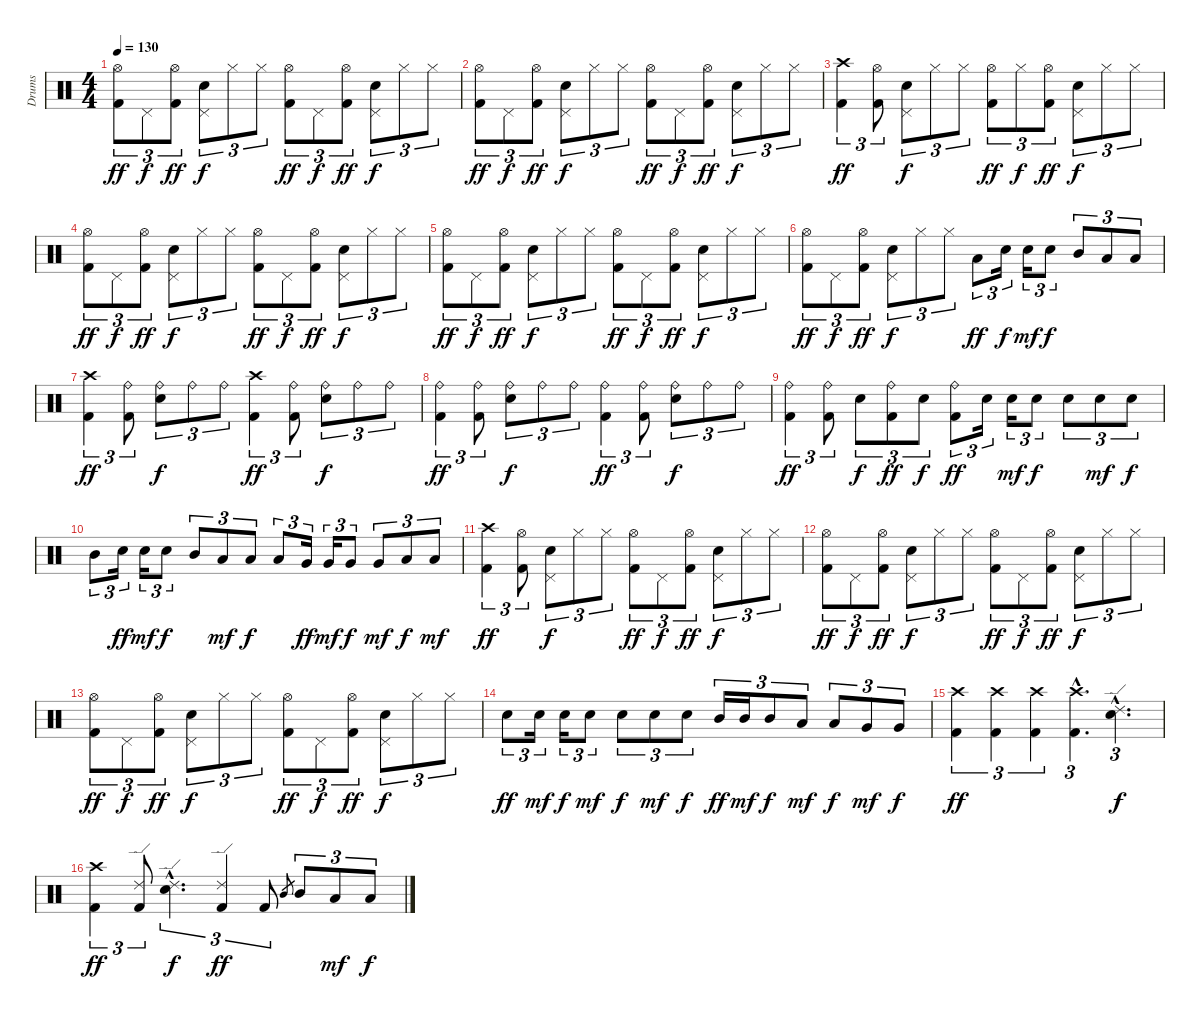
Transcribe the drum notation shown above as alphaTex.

\track ("Drums" "Drums") {instrument percussion}
\staff {score}
\articulation defaults
\ts (4 4)
\tempo 130
\clef neutral
\ks c
("Hi-Hat (open)" "Kick (hit) 2").8{tu (3 2) dy ff} "Pedal Hi-Hat (hit)".8{tu (3 2) dy f} ("Hi-Hat (open)" "Kick (hit) 2").8{tu (3 2) dy ff} ("Pedal Hi-Hat (hit)" "Snare (hit) 2").8{tu (3 2) dy f} "Hi-Hat (closed)".8{tu (3 2)} "Hi-Hat (closed)".8{tu (3 2)} ("Hi-Hat (open)" "Kick (hit) 2").8{tu (3 2) dy ff} "Pedal Hi-Hat (hit)".8{tu (3 2) dy f} ("Hi-Hat (open)" "Kick (hit) 2").8{tu (3 2) dy ff} ("Pedal Hi-Hat (hit)" "Snare (hit) 2").8{tu (3 2) dy f} "Hi-Hat (closed)".8{tu (3 2)} "Hi-Hat (closed)".8{tu (3 2)} |
("Hi-Hat (open)" "Kick (hit) 2").8{tu (3 2) dy ff} "Pedal Hi-Hat (hit)".8{tu (3 2) dy f} ("Hi-Hat (open)" "Kick (hit) 2").8{tu (3 2) dy ff} ("Pedal Hi-Hat (hit)" "Snare (hit) 2").8{tu (3 2) dy f} "Hi-Hat (closed)".8{tu (3 2)} "Hi-Hat (closed)".8{tu (3 2)} ("Hi-Hat (open)" "Kick (hit) 2").8{tu (3 2) dy ff} "Pedal Hi-Hat (hit)".8{tu (3 2) dy f} ("Hi-Hat (open)" "Kick (hit) 2").8{tu (3 2) dy ff} ("Pedal Hi-Hat (hit)" "Snare (hit) 2").8{tu (3 2) dy f} "Hi-Hat (closed)".8{tu (3 2)} "Hi-Hat (closed)".8{tu (3 2)} |
("Crash high (hit)" "Kick (hit) 2").4{tu (3 2) dy ff} ("Hi-Hat (open)" "Kick (hit) 2").8{tu (3 2)} ("Pedal Hi-Hat (hit)" "Snare (hit) 2").8{tu (3 2) dy f} "Hi-Hat (closed)".8{tu (3 2)} "Hi-Hat (closed)".8{tu (3 2)} ("Hi-Hat (open)" "Kick (hit) 2").8{tu (3 2) dy ff} "Hi-Hat (closed)".8{tu (3 2) dy f} ("Hi-Hat (open)" "Kick (hit) 2").8{tu (3 2) dy ff} ("Pedal Hi-Hat (hit)" "Snare (hit) 2").8{tu (3 2) dy f} "Hi-Hat (closed)".8{tu (3 2)} "Hi-Hat (closed)".8{tu (3 2)} |
("Hi-Hat (open)" "Kick (hit) 2").8{tu (3 2) dy ff} "Pedal Hi-Hat (hit)".8{tu (3 2) dy f} ("Hi-Hat (open)" "Kick (hit) 2").8{tu (3 2) dy ff} ("Pedal Hi-Hat (hit)" "Snare (hit) 2").8{tu (3 2) dy f} "Hi-Hat (closed)".8{tu (3 2)} "Hi-Hat (closed)".8{tu (3 2)} ("Hi-Hat (open)" "Kick (hit) 2").8{tu (3 2) dy ff} "Pedal Hi-Hat (hit)".8{tu (3 2) dy f} ("Hi-Hat (open)" "Kick (hit) 2").8{tu (3 2) dy ff} ("Pedal Hi-Hat (hit)" "Snare (hit) 2").8{tu (3 2) dy f} "Hi-Hat (closed)".8{tu (3 2)} "Hi-Hat (closed)".8{tu (3 2)} |
("Hi-Hat (open)" "Kick (hit) 2").8{tu (3 2) dy ff} "Pedal Hi-Hat (hit)".8{tu (3 2) dy f} ("Hi-Hat (open)" "Kick (hit) 2").8{tu (3 2) dy ff} ("Pedal Hi-Hat (hit)" "Snare (hit) 2").8{tu (3 2) dy f} "Hi-Hat (closed)".8{tu (3 2)} "Hi-Hat (closed)".8{tu (3 2)} ("Hi-Hat (open)" "Kick (hit) 2").8{tu (3 2) dy ff} "Pedal Hi-Hat (hit)".8{tu (3 2) dy f} ("Hi-Hat (open)" "Kick (hit) 2").8{tu (3 2) dy ff} ("Pedal Hi-Hat (hit)" "Snare (hit) 2").8{tu (3 2) dy f} "Hi-Hat (closed)".8{tu (3 2)} "Hi-Hat (closed)".8{tu (3 2)} |
("Hi-Hat (open)" "Kick (hit) 2").8{tu (3 2) dy ff} "Pedal Hi-Hat (hit)".8{tu (3 2) dy f} ("Hi-Hat (open)" "Kick (hit) 2").8{tu (3 2) dy ff} ("Pedal Hi-Hat (hit)" "Snare (hit) 2").8{tu (3 2) dy f} "Hi-Hat (closed)".8{tu (3 2)} "Hi-Hat (closed)".8{tu (3 2)} "Low Tom (hit)".8{tu (3 2) dy ff} "Snare (hit) 2".16{tu (3 2) dy f} "Snare (hit) 2".16{tu (3 2) dy mf} "Snare (hit) 2".8{tu (3 2) dy f} "Mid Tom (hit)".8{tu (3 2)} "Low Tom (hit)".8{tu (3 2)} "Low Tom (hit)".8{tu (3 2)} |
("Crash high (hit)" "Kick (hit) 2").4{tu (3 2) dy ff} ("Ride (bell)" "Kick (hit) 2").8{tu (3 2)} ("Ride (bell)" "Snare (hit) 2").8{tu (3 2) dy f} "Ride (bell)".8{tu (3 2)} "Ride (bell)".8{tu (3 2)} ("Crash high (hit)" "Kick (hit) 2").4{tu (3 2) dy ff} ("Ride (bell)" "Kick (hit) 2").8{tu (3 2)} ("Ride (bell)" "Snare (hit) 2").8{tu (3 2) dy f} "Ride (bell)".8{tu (3 2)} "Ride (bell)".8{tu (3 2)} |
("Ride (bell)" "Kick (hit) 2").4{tu (3 2) dy ff} ("Ride (bell)" "Kick (hit) 2").8{tu (3 2)} ("Ride (bell)" "Snare (hit) 2").8{tu (3 2) dy f} "Ride (bell)".8{tu (3 2)} "Ride (bell)".8{tu (3 2)} ("Ride (bell)" "Kick (hit) 2").4{tu (3 2) dy ff} ("Ride (bell)" "Kick (hit) 2").8{tu (3 2)} ("Ride (bell)" "Snare (hit) 2").8{tu (3 2) dy f} "Ride (bell)".8{tu (3 2)} "Ride (bell)".8{tu (3 2)} |
("Ride (bell)" "Kick (hit) 2").4{tu (3 2) dy ff} ("Ride (bell)" "Kick (hit) 2").8{tu (3 2)} "Snare (hit) 2".8{tu (3 2) dy f} ("Ride (bell)" "Kick (hit) 2").8{tu (3 2) dy ff} "Snare (hit) 2".8{tu (3 2) dy f} ("Ride (bell)" "Kick (hit) 2").8{tu (3 2) dy ff} "Snare (hit) 2".16{tu (3 2)} "Snare (hit) 2".16{tu (3 2) dy mf} "Snare (hit) 2".8{tu (3 2) dy f} "Snare (hit) 2".8{tu (3 2)} "Snare (hit) 2".8{tu (3 2) dy mf} "Snare (hit) 2".8{tu (3 2) dy f} |
"Mid Tom (hit)".8{tu (3 2)} "Snare (hit) 2".16{tu (3 2) dy ff} "Snare (hit) 2".16{tu (3 2) dy mf} "Snare (hit) 2".8{tu (3 2) dy f} "Mid Tom (hit)".8{tu (3 2)} "Low Tom (hit)".8{tu (3 2) dy mf} "Low Tom (hit)".8{tu (3 2) dy f} "Low Tom (hit)".8{tu (3 2)} "Very Low Tom (hit)".16{tu (3 2) dy ff} "Very Low Tom (hit)".16{tu (3 2) dy mf} "Very Low Tom (hit)".8{tu (3 2) dy f} "Very Low Tom (hit)".8{tu (3 2) dy mf} "Low Floor Tom (hit)".8{tu (3 2) dy f} "Low Floor Tom (hit)".8{tu (3 2) dy mf} |
("Crash high (hit)" "Kick (hit) 2").4{tu (3 2) dy ff} ("Hi-Hat (open)" "Kick (hit) 2").8{tu (3 2)} ("Pedal Hi-Hat (hit)" "Snare (hit) 2").8{tu (3 2) dy f} "Hi-Hat (closed)".8{tu (3 2)} "Hi-Hat (closed)".8{tu (3 2)} ("Hi-Hat (open)" "Kick (hit) 2").8{tu (3 2) dy ff} "Pedal Hi-Hat (hit)".8{tu (3 2) dy f} ("Hi-Hat (open)" "Kick (hit) 2").8{tu (3 2) dy ff} ("Pedal Hi-Hat (hit)" "Snare (hit) 2").8{tu (3 2) dy f} "Hi-Hat (closed)".8{tu (3 2)} "Hi-Hat (closed)".8{tu (3 2)} |
("Hi-Hat (open)" "Kick (hit) 2").8{tu (3 2) dy ff} "Pedal Hi-Hat (hit)".8{tu (3 2) dy f} ("Hi-Hat (open)" "Kick (hit) 2").8{tu (3 2) dy ff} ("Pedal Hi-Hat (hit)" "Snare (hit) 2").8{tu (3 2) dy f} "Hi-Hat (closed)".8{tu (3 2)} "Hi-Hat (closed)".8{tu (3 2)} ("Hi-Hat (open)" "Kick (hit) 2").8{tu (3 2) dy ff} "Pedal Hi-Hat (hit)".8{tu (3 2) dy f} ("Hi-Hat (open)" "Kick (hit) 2").8{tu (3 2) dy ff} ("Pedal Hi-Hat (hit)" "Snare (hit) 2").8{tu (3 2) dy f} "Hi-Hat (closed)".8{tu (3 2)} "Hi-Hat (closed)".8{tu (3 2)} |
("Hi-Hat (open)" "Kick (hit) 2").8{tu (3 2) dy ff} "Pedal Hi-Hat (hit)".8{tu (3 2) dy f} ("Hi-Hat (open)" "Kick (hit) 2").8{tu (3 2) dy ff} ("Pedal Hi-Hat (hit)" "Snare (hit) 2").8{tu (3 2) dy f} "Hi-Hat (closed)".8{tu (3 2)} "Hi-Hat (closed)".8{tu (3 2)} ("Hi-Hat (open)" "Kick (hit) 2").8{tu (3 2) dy ff} "Pedal Hi-Hat (hit)".8{tu (3 2) dy f} ("Hi-Hat (open)" "Kick (hit) 2").8{tu (3 2) dy ff} ("Pedal Hi-Hat (hit)" "Snare (hit) 2").8{tu (3 2) dy f} "Hi-Hat (closed)".8{tu (3 2)} "Hi-Hat (closed)".8{tu (3 2)} |
"Snare (hit) 2".8{tu (3 2) dy ff} "Snare (hit) 2".16{tu (3 2) dy mf} "Snare (hit) 2".16{tu (3 2) dy f} "Snare (hit) 2".8{tu (3 2) dy mf} "Snare (hit) 2".8{tu (3 2) dy f} "Snare (hit) 2".8{tu (3 2) dy mf} "Snare (hit) 2".8{tu (3 2) dy f} "Mid Tom (hit)".16{tu (3 2) dy ff} "Mid Tom (hit)".16{tu (3 2) dy mf} "Mid Tom (hit)".8{tu (3 2) dy f} "Low Tom (hit)".8{tu (3 2) dy mf} "Low Tom (hit)".8{tu (3 2) dy f} "Very Low Tom (hit)".8{tu (3 2) dy mf} "Very Low Tom (hit)".8{tu (3 2) dy f} |
("Crash high (hit)" "Kick (hit) 2").4{tu (3 2) dy ff} ("Crash high (hit)" "Kick (hit) 2").4{tu (3 2)} ("Crash high (hit)" "Kick (hit) 2").4{tu (3 2)} ("Crash high (hit)"{hac} "Kick (hit) 2"{hac}).4{d tu (3 2)} ("Ride (edge) 2"{hac} "Snare (hit) 2"{hac}).4{d tu (3 2) dy f} |
("Crash high (hit)" "Kick (hit) 2").4{tu (3 2) dy ff} ("Ride (edge) 2" "Kick (hit) 2").8{tu (3 2)} ("Ride (edge) 2"{hac} "Snare (hit) 2"{hac}).4{d tu (3 2) dy f} ("Ride (edge) 2" "Kick (hit) 2").4{tu (3 2) dy ff} "Kick (hit) 2".8{tu (3 2)} "Mid Tom (hit)".8{gr} "Mid Tom (hit)".8{tu (3 2)} "Low Tom (hit)".8{tu (3 2) dy mf} "Low Tom (hit)".8{tu (3 2) dy f}
